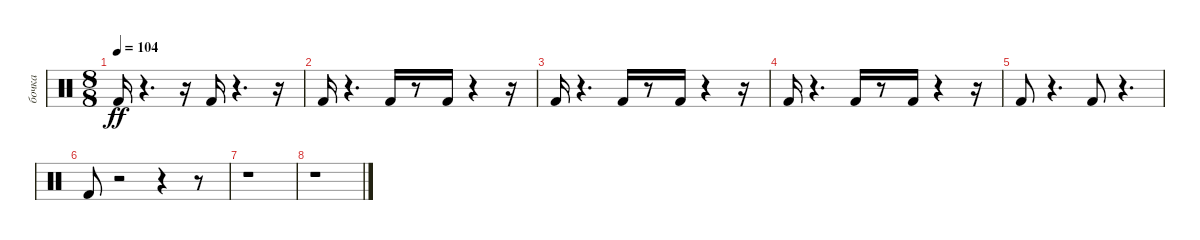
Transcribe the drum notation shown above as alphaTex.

\track ("бочка" "бочка") {instrument percussion}
\staff {score}
\articulation defaults
\ts (8 8)
\tempo 104
\clef neutral
\ks c "Kick (hit) 2".16{dy ff}
r.4{d} r.16 "Kick (hit) 2".16 r.4{d} r.16 |
"Kick (hit) 2".16 r.4{d} "Kick (hit) 2".16 r.8 "Kick (hit) 2".16 r.4 r.16 |
"Kick (hit) 2".16 r.4{d} "Kick (hit) 2".16 r.8 "Kick (hit) 2".16 r.4 r.16 |
"Kick (hit) 2".16 r.4{d} "Kick (hit) 2".16 r.8 "Kick (hit) 2".16 r.4 r.16 |
"Kick (hit) 2".8 r.4{d} "Kick (hit) 2".8 r.4{d} |
"Kick (hit) 2".8 r.2 r.4 r.8 |
r.1 |
r.1
